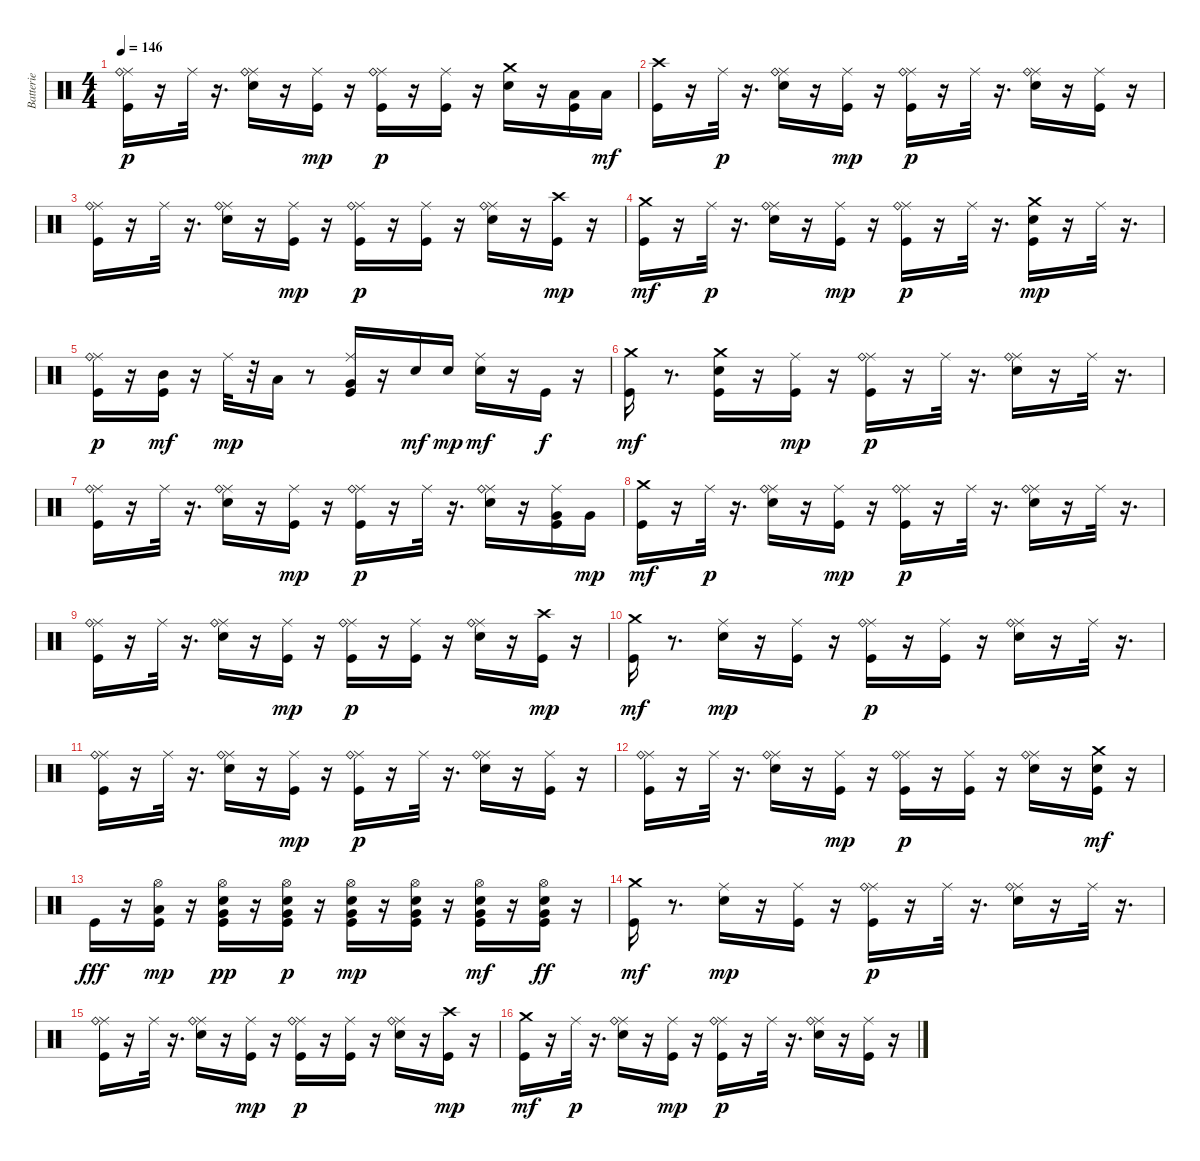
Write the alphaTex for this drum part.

\track ("Batterie" "Batterie") {instrument percussion}
\staff {score}
\articulation defaults
\ts (4 4)
\tempo 146
\clef neutral
\ks c
("Kick (hit)" "Ride (middle)" "Ride (bell)").16{dy p} r.16 "Ride (middle)".32 r.16{d} ("Electric Snare (hit)" "Ride (middle)" "Ride (bell)").16 r.16 ("Kick (hit)" "Ride (middle)").16{dy mp} r.16 ("Kick (hit)" "Ride (middle)" "Ride (bell)").16{dy p} r.16 ("Kick (hit)" "Ride (middle)").16 r.16 ("Electric Snare (hit)" "Crash medium (hit)").16 r.16 ("Kick (hit)" "Low Tom (hit)").16 "Low Tom (hit)".16{dy mf} |
("Kick (hit)" "Crash high (hit)").16 r.16 "Ride (middle)".32{dy p} r.16{d} ("Electric Snare (hit)" "Ride (middle)" "Ride (bell)").16 r.16 ("Kick (hit)" "Ride (middle)").16{dy mp} r.16 ("Kick (hit)" "Ride (middle)" "Ride (bell)").16{dy p} r.16 "Ride (middle)".32 r.16{d} ("Electric Snare (hit)" "Ride (middle)" "Ride (bell)").16 r.16 ("Kick (hit)" "Ride (middle)").16 r.16 |
("Kick (hit)" "Ride (middle)" "Ride (bell)").16 r.16 "Ride (middle)".32 r.16{d} ("Electric Snare (hit)" "Ride (middle)" "Ride (bell)").16 r.16 ("Kick (hit)" "Ride (middle)").16{dy mp} r.16 ("Kick (hit)" "Ride (middle)" "Ride (bell)").16{dy p} r.16 ("Kick (hit)" "Ride (middle)").16 r.16 ("Electric Snare (hit)" "Ride (middle)" "Ride (bell)").16 r.16 ("Kick (hit)" "Crash high (hit)").16{dy mp} r.16 |
("Kick (hit)" "Crash medium (hit)").16{dy mf} r.16 "Ride (middle)".32{dy p} r.16{d} ("Electric Snare (hit)" "Ride (middle)" "Ride (bell)").16 r.16 ("Kick (hit)" "Ride (middle)").16{dy mp} r.16 ("Kick (hit)" "Ride (middle)" "Ride (bell)").16{dy p} r.16 "Ride (middle)".32 r.16{d} ("Kick (hit)" "Electric Snare (hit)" "Crash medium (hit)").16{dy mp} r.16 "Ride (middle)".32 r.16{d} |
("Kick (hit)" "Ride (middle)" "Ride (bell)").16{dy p} r.16 ("Kick (hit)" "Mid Tom (hit)").16{dy mf} r.16 "Ride (middle)".32{dy mp} r.32 "Low Tom (hit)".16 r.8 ("Kick (hit)" "Ride (middle)" "Very Low Tom (hit)").16 r.16 "Electric Snare (hit)".16{dy mf} "Electric Snare (hit)".16{dy mp} ("Electric Snare (hit)" "Ride (middle)").16{dy mf} r.16 "Kick (hit)".16{dy f} r.16 |
("Kick (hit)" "Crash medium (hit)").16{dy mf} r.8{d} ("Kick (hit)" "Electric Snare (hit)" "Crash medium (hit)").16 r.16 ("Kick (hit)" "Ride (middle)").16{dy mp} r.16 ("Kick (hit)" "Ride (middle)" "Ride (bell)").16{dy p} r.16 "Ride (middle)".32 r.16{d} ("Electric Snare (hit)" "Ride (middle)" "Ride (bell)").16 r.16 "Ride (middle)".32 r.16{d} |
("Kick (hit)" "Ride (middle)" "Ride (bell)").16 r.16 "Ride (middle)".32 r.16{d} ("Electric Snare (hit)" "Ride (middle)" "Ride (bell)").16 r.16 ("Kick (hit)" "Ride (middle)").16{dy mp} r.16 ("Kick (hit)" "Ride (middle)" "Ride (bell)").16{dy p} r.16 "Ride (middle)".32 r.16{d} ("Electric Snare (hit)" "Ride (middle)" "Ride (bell)").16 r.16 ("Kick (hit)" "Ride (middle)" "Very Low Tom (hit)").16 "Very Low Tom (hit)".16{dy mp} |
("Kick (hit)" "Crash medium (hit)").16{dy mf} r.16 "Ride (middle)".32{dy p} r.16{d} ("Electric Snare (hit)" "Ride (middle)" "Ride (bell)").16 r.16 ("Kick (hit)" "Ride (middle)").16{dy mp} r.16 ("Kick (hit)" "Ride (middle)" "Ride (bell)").16{dy p} r.16 "Ride (middle)".32 r.16{d} ("Electric Snare (hit)" "Ride (middle)" "Ride (bell)").16 r.16 "Ride (middle)".32 r.16{d} |
("Kick (hit)" "Ride (middle)" "Ride (bell)").16 r.16 "Ride (middle)".32 r.16{d} ("Electric Snare (hit)" "Ride (middle)" "Ride (bell)").16 r.16 ("Kick (hit)" "Ride (middle)").16{dy mp} r.16 ("Kick (hit)" "Ride (middle)" "Ride (bell)").16{dy p} r.16 ("Kick (hit)" "Ride (middle)").16 r.16 ("Electric Snare (hit)" "Ride (middle)" "Ride (bell)").16 r.16 ("Kick (hit)" "Crash high (hit)").16{dy mp} r.16 |
("Kick (hit)" "Crash medium (hit)").16{dy mf} r.8{d} ("Electric Snare (hit)" "Ride (middle)").16{dy mp} r.16 ("Kick (hit)" "Ride (middle)").16 r.16 ("Kick (hit)" "Ride (middle)" "Ride (bell)").16{dy p} r.16 ("Kick (hit)" "Ride (middle)").16 r.16 ("Electric Snare (hit)" "Ride (middle)" "Ride (bell)").16 r.16 "Ride (middle)".32 r.16{d} |
("Kick (hit)" "Ride (middle)" "Ride (bell)").16 r.16 "Ride (middle)".32 r.16{d} ("Electric Snare (hit)" "Ride (middle)" "Ride (bell)").16 r.16 ("Kick (hit)" "Ride (middle)").16{dy mp} r.16 ("Kick (hit)" "Ride (middle)" "Ride (bell)").16{dy p} r.16 "Ride (middle)".32 r.16{d} ("Electric Snare (hit)" "Ride (middle)" "Ride (bell)").16 r.16 ("Kick (hit)" "Ride (middle)").16 r.16 |
("Kick (hit)" "Ride (middle)" "Ride (bell)").16 r.16 "Ride (middle)".32 r.16{d} ("Electric Snare (hit)" "Ride (middle)" "Ride (bell)").16 r.16 ("Kick (hit)" "Ride (middle)").16{dy mp} r.16 ("Kick (hit)" "Ride (middle)" "Ride (bell)").16{dy p} r.16 ("Kick (hit)" "Ride (middle)").16 r.16 ("Electric Snare (hit)" "Ride (middle)" "Ride (bell)").16 r.16 ("Kick (hit)" "Electric Snare (hit)" "Crash medium (hit)").16{dy mf} r.16 |
"Kick (hit)".16{dy fff} r.16 ("Kick (hit)" "Hi-Hat (open)" "Low Tom (hit)").16{dy mp} r.16 ("Kick (hit)" "Electric Snare (hit)" "Hi-Hat (open)" "Very Low Tom (hit)").16{dy pp} r.16 ("Kick (hit)" "Electric Snare (hit)" "Hi-Hat (open)" "Very Low Tom (hit)").16{dy p} r.16 ("Kick (hit)" "Electric Snare (hit)" "Hi-Hat (open)" "Very Low Tom (hit)").16{dy mp} r.16 ("Kick (hit)" "Electric Snare (hit)" "Hi-Hat (open)" "Very Low Tom (hit)").16 r.16 ("Kick (hit)" "Electric Snare (hit)" "Hi-Hat (open)" "Very Low Tom (hit)").16{dy mf} r.16 ("Kick (hit)" "Electric Snare (hit)" "Hi-Hat (open)" "Very Low Tom (hit)").16{dy ff} r.16 |
("Kick (hit)" "Crash medium (hit)").16{dy mf} r.8{d} ("Electric Snare (hit)" "Ride (middle)").16{dy mp} r.16 ("Kick (hit)" "Ride (middle)").16 r.16 ("Kick (hit)" "Ride (middle)" "Ride (bell)").16{dy p} r.16 "Ride (middle)".32 r.16{d} ("Electric Snare (hit)" "Ride (middle)" "Ride (bell)").16 r.16 "Ride (middle)".32 r.16{d} |
("Kick (hit)" "Ride (middle)" "Ride (bell)").16 r.16 "Ride (middle)".32 r.16{d} ("Electric Snare (hit)" "Ride (middle)" "Ride (bell)").16 r.16 ("Kick (hit)" "Ride (middle)").16{dy mp} r.16 ("Kick (hit)" "Ride (middle)" "Ride (bell)").16{dy p} r.16 ("Kick (hit)" "Ride (middle)").16 r.16 ("Electric Snare (hit)" "Ride (middle)" "Ride (bell)").16 r.16 ("Kick (hit)" "Crash high (hit)").16{dy mp} r.16 |
("Kick (hit)" "Crash medium (hit)").16{dy mf} r.16 "Ride (middle)".32{dy p} r.16{d} ("Electric Snare (hit)" "Ride (middle)" "Ride (bell)").16 r.16 ("Kick (hit)" "Ride (middle)").16{dy mp} r.16 ("Kick (hit)" "Ride (middle)" "Ride (bell)").16{dy p} r.16 "Ride (middle)".32 r.16{d} ("Electric Snare (hit)" "Ride (middle)" "Ride (bell)").16 r.16 ("Kick (hit)" "Ride (middle)").16 r.16
